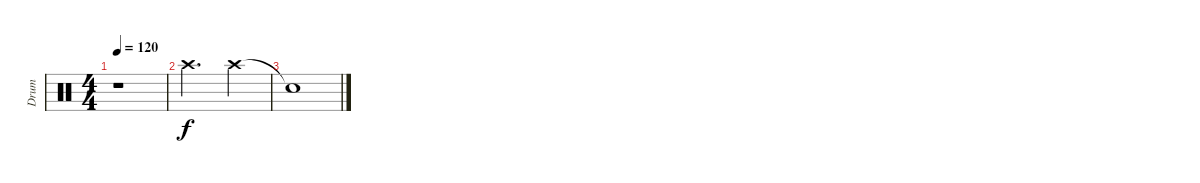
\track ("Drum" "Drum") {instrument percussion}
\staff {score}
\articulation defaults
\ts (4 4)
\tempo 120
\clef neutral
\ks c
r.1{dy f volume 0} |
"Crash high (hit)".2{d volume 16} "Crash high (hit)".4 |
"Snare (hit)"{t}.1{volume 0}
